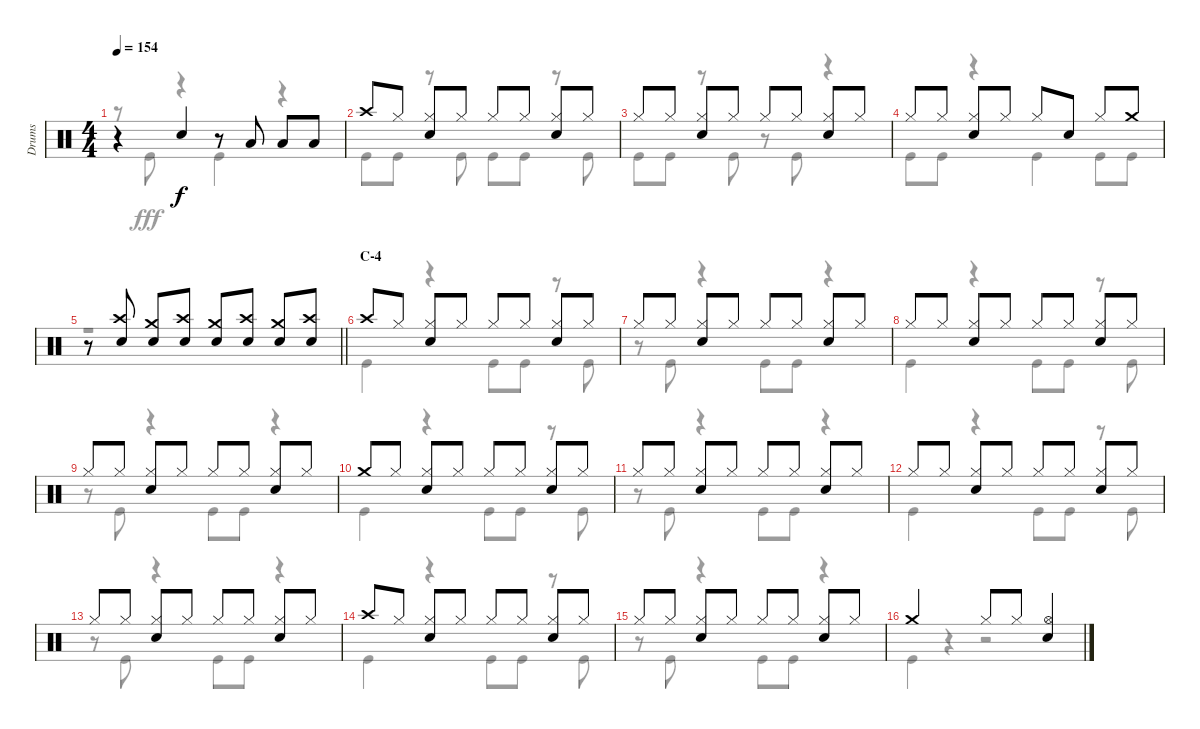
\track ("Drums" "Drums") {instrument percussion}
\staff {score}
\articulation defaults
\voice
\ts (4 4)
\tempo 154
\clef neutral
\ks c
r.4{dy f} "Snare (hit) 2".4 r.8 "Low Tom (hit)".8 "Low Tom (hit)".8 "Low Tom (hit)".8 |
"Crash high (hit)".8 "Hi-Hat (closed)".8 ("Hi-Hat (closed)" "Snare (hit) 2").8 "Hi-Hat (closed)".8 "Hi-Hat (closed)".8 "Hi-Hat (closed)".8 ("Hi-Hat (closed)" "Snare (hit) 2").8 "Hi-Hat (closed)".8 |
"Hi-Hat (closed)".8 "Hi-Hat (closed)".8 ("Hi-Hat (closed)" "Snare (hit) 2").8 "Hi-Hat (closed)".8 "Hi-Hat (closed)".8 "Hi-Hat (closed)".8 ("Hi-Hat (closed)" "Snare (hit) 2").8 "Hi-Hat (closed)".8 |
"Hi-Hat (closed)".8 "Hi-Hat (closed)".8 ("Hi-Hat (closed)" "Snare (hit) 2").8 "Hi-Hat (closed)".8 "Hi-Hat (closed)".8 "Snare (hit) 2".8 "Hi-Hat (closed)".8 "Crash medium (hit)".8 |
\barLineRight lightlight
r.8 ("Crash high (hit)" "Snare (hit) 2").8 ("Crash medium (hit)" "Snare (hit) 2").8 ("Crash high (hit)" "Snare (hit) 2").8 ("Crash medium (hit)" "Snare (hit) 2").8 ("Crash high (hit)" "Snare (hit) 2").8 ("Crash medium (hit)" "Snare (hit) 2").8 ("Crash high (hit)" "Snare (hit) 2").8 |
\section ("" "C-4")
"Crash high (hit)".8 "Hi-Hat (closed)".8 ("Hi-Hat (closed)" "Snare (hit) 2").8 "Hi-Hat (closed)".8 "Hi-Hat (closed)".8 "Hi-Hat (closed)".8 ("Hi-Hat (closed)" "Snare (hit) 2").8 "Hi-Hat (closed)".8 |
"Hi-Hat (closed)".8 "Hi-Hat (closed)".8 ("Hi-Hat (closed)" "Snare (hit) 2").8 "Hi-Hat (closed)".8 "Hi-Hat (closed)".8 "Hi-Hat (closed)".8 ("Hi-Hat (closed)" "Snare (hit) 2").8 "Hi-Hat (closed)".8 |
"Hi-Hat (closed)".8 "Hi-Hat (closed)".8 ("Hi-Hat (closed)" "Snare (hit) 2").8 "Hi-Hat (closed)".8 "Hi-Hat (closed)".8 "Hi-Hat (closed)".8 ("Hi-Hat (closed)" "Snare (hit) 2").8 "Hi-Hat (closed)".8 |
"Hi-Hat (closed)".8 "Hi-Hat (closed)".8 ("Hi-Hat (closed)" "Snare (hit) 2").8 "Hi-Hat (closed)".8 "Hi-Hat (closed)".8 "Hi-Hat (closed)".8 ("Hi-Hat (closed)" "Snare (hit) 2").8 "Hi-Hat (closed)".8 |
"Crash medium (hit)".8 "Hi-Hat (closed)".8 ("Hi-Hat (closed)" "Snare (hit) 2").8 "Hi-Hat (closed)".8 "Hi-Hat (closed)".8 "Hi-Hat (closed)".8 ("Hi-Hat (closed)" "Snare (hit) 2").8 "Hi-Hat (closed)".8 |
"Hi-Hat (closed)".8 "Hi-Hat (closed)".8 ("Hi-Hat (closed)" "Snare (hit) 2").8 "Hi-Hat (closed)".8 "Hi-Hat (closed)".8 "Hi-Hat (closed)".8 ("Hi-Hat (closed)" "Snare (hit) 2").8 "Hi-Hat (closed)".8 |
"Hi-Hat (closed)".8 "Hi-Hat (closed)".8 ("Hi-Hat (closed)" "Snare (hit) 2").8 "Hi-Hat (closed)".8 "Hi-Hat (closed)".8 "Hi-Hat (closed)".8 ("Hi-Hat (closed)" "Snare (hit) 2").8 "Hi-Hat (closed)".8 |
"Hi-Hat (closed)".8 "Hi-Hat (closed)".8 ("Hi-Hat (closed)" "Snare (hit) 2").8 "Hi-Hat (closed)".8 "Hi-Hat (closed)".8 "Hi-Hat (closed)".8 ("Hi-Hat (closed)" "Snare (hit) 2").8 "Hi-Hat (closed)".8 |
"Crash high (hit)".8 "Hi-Hat (closed)".8 ("Hi-Hat (closed)" "Snare (hit) 2").8 "Hi-Hat (closed)".8 "Hi-Hat (closed)".8 "Hi-Hat (closed)".8 ("Hi-Hat (closed)" "Snare (hit) 2").8 "Hi-Hat (closed)".8 |
"Hi-Hat (closed)".8 "Hi-Hat (closed)".8 ("Hi-Hat (closed)" "Snare (hit) 2").8 "Hi-Hat (closed)".8 "Hi-Hat (closed)".8 "Hi-Hat (closed)".8 ("Hi-Hat (closed)" "Snare (hit) 2").8 "Hi-Hat (closed)".8 |
"Crash medium (hit)".2 "Hi-Hat (closed)".8 "Hi-Hat (closed)".8 ("Hi-Hat (open)" "Snare (hit) 2").4
\voice
\clef neutral
\ottava regular
\simile none
\ks c
r.8{dy fff} "Kick (hit)".8 r.4 "Kick (hit)".4 r.4 |
"Kick (hit)".8 "Kick (hit)".8 r.8 "Kick (hit)".8 "Kick (hit)".8 "Kick (hit)".8 r.8 "Kick (hit)".8 |
"Kick (hit)".8 "Kick (hit)".8 r.8 "Kick (hit)".8 r.8 "Kick (hit)".8 r.4 |
"Kick (hit)".8 "Kick (hit)".8 r.4 "Kick (hit)".4 "Kick (hit)".8 "Kick (hit)".8 |
\barLineRight lightlight
r.1 |
"Kick (hit)".4 r.4 "Kick (hit)".8 "Kick (hit)".8 r.8 "Kick (hit)".8 |
r.8 "Kick (hit)".8 r.4 "Kick (hit)".8 "Kick (hit)".8 r.4 |
"Kick (hit)".4 r.4 "Kick (hit)".8 "Kick (hit)".8 r.8 "Kick (hit)".8 |
r.8 "Kick (hit)".8 r.4 "Kick (hit)".8 "Kick (hit)".8 r.4 |
"Kick (hit)".4 r.4 "Kick (hit)".8 "Kick (hit)".8 r.8 "Kick (hit)".8 |
r.8 "Kick (hit)".8 r.4 "Kick (hit)".8 "Kick (hit)".8 r.4 |
"Kick (hit)".4 r.4 "Kick (hit)".8 "Kick (hit)".8 r.8 "Kick (hit)".8 |
r.8 "Kick (hit)".8 r.4 "Kick (hit)".8 "Kick (hit)".8 r.4 |
"Kick (hit)".4 r.4 "Kick (hit)".8 "Kick (hit)".8 r.8 "Kick (hit)".8 |
r.8 "Kick (hit)".8 r.4 "Kick (hit)".8 "Kick (hit)".8 r.4 |
"Kick (hit)".4 r.4 r.2
